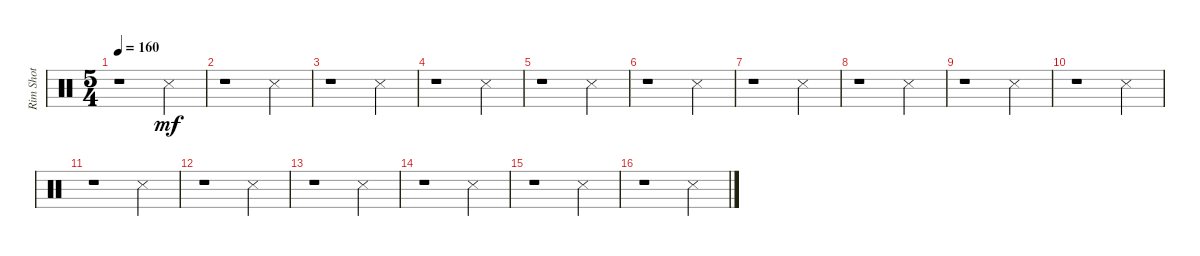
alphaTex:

\track ("Rim Shot" "Rim Shot") {instrument percussion}
\staff {score}
\articulation defaults
\ts (5 4)
\tempo 160
\clef neutral
\ks c
r.1{dy mf} "Snare (side stick) 3".4 |
r.1 "Snare (side stick) 3".4 |
r.1 "Snare (side stick) 3".4 |
r.1 "Snare (side stick) 3".4 |
r.1 "Snare (side stick) 3".4 |
r.1 "Snare (side stick) 3".4 |
r.1 "Snare (side stick) 3".4 |
r.1 "Snare (side stick) 3".4 |
r.1 "Snare (side stick) 3".4 |
r.1 "Snare (side stick) 3".4 |
r.1 "Snare (side stick) 3".4 |
r.1 "Snare (side stick) 3".4 |
r.1 "Snare (side stick) 3".4 |
r.1 "Snare (side stick) 3".4 |
r.1 "Snare (side stick) 3".4 |
r.1 "Snare (side stick) 3".4
